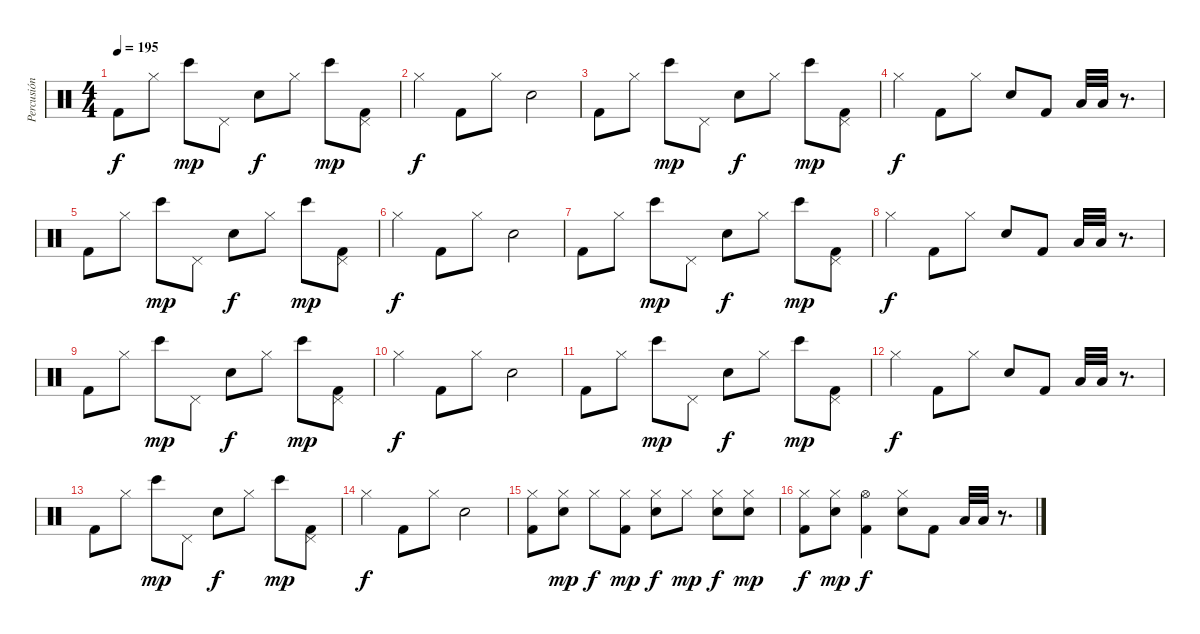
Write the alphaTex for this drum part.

\track ("Percusión" "Percusión") {instrument percussion}
\staff {score}
\articulation defaults
\ts (4 4)
\tempo 195
\clef neutral
\ks c "Kick (hit) 2".8{dy f} "Hi-Hat (closed)".8 "Bongo High (hit)".8{dy mp} "Pedal Hi-Hat (hit)".8 "Electric Snare (hit)".8{dy f} "Hi-Hat (closed)".8 "Bongo High (hit)".8{dy mp}
("Pedal Hi-Hat (hit)" "Kick (hit) 2").8 |
"Hi-Hat (closed)".4{dy f} "Kick (hit) 2".8 "Hi-Hat (closed)".8 "Electric Snare (hit)".2 |
"Kick (hit) 2".8 "Hi-Hat (closed)".8 "Bongo High (hit)".8{dy mp} "Pedal Hi-Hat (hit)".8 "Electric Snare (hit)".8{dy f} "Hi-Hat (closed)".8 "Bongo High (hit)".8{dy mp} ("Pedal Hi-Hat (hit)" "Kick (hit) 2").8 |
"Hi-Hat (closed)".4{dy f} "Kick (hit) 2".8 "Hi-Hat (closed)".8 "Electric Snare (hit)".8 "Kick (hit) 2".8 "Low Floor Tom (hit)".32 "Low Floor Tom (hit)".32 r.8{d} |
"Kick (hit) 2".8 "Hi-Hat (closed)".8 "Bongo High (hit)".8{dy mp} "Pedal Hi-Hat (hit)".8 "Electric Snare (hit)".8{dy f} "Hi-Hat (closed)".8 "Bongo High (hit)".8{dy mp} ("Pedal Hi-Hat (hit)" "Kick (hit) 2").8 |
"Hi-Hat (closed)".4{dy f} "Kick (hit) 2".8 "Hi-Hat (closed)".8 "Electric Snare (hit)".2 |
"Kick (hit) 2".8 "Hi-Hat (closed)".8 "Bongo High (hit)".8{dy mp} "Pedal Hi-Hat (hit)".8 "Electric Snare (hit)".8{dy f} "Hi-Hat (closed)".8 "Bongo High (hit)".8{dy mp} ("Pedal Hi-Hat (hit)" "Kick (hit) 2").8 |
"Hi-Hat (closed)".4{dy f} "Kick (hit) 2".8 "Hi-Hat (closed)".8 "Electric Snare (hit)".8 "Kick (hit) 2".8 "Low Floor Tom (hit)".32 "Low Floor Tom (hit)".32 r.8{d} |
"Kick (hit) 2".8 "Hi-Hat (closed)".8 "Bongo High (hit)".8{dy mp} "Pedal Hi-Hat (hit)".8 "Electric Snare (hit)".8{dy f} "Hi-Hat (closed)".8 "Bongo High (hit)".8{dy mp} ("Pedal Hi-Hat (hit)" "Kick (hit) 2").8 |
"Hi-Hat (closed)".4{dy f} "Kick (hit) 2".8 "Hi-Hat (closed)".8 "Electric Snare (hit)".2 |
"Kick (hit) 2".8 "Hi-Hat (closed)".8 "Bongo High (hit)".8{dy mp} "Pedal Hi-Hat (hit)".8 "Electric Snare (hit)".8{dy f} "Hi-Hat (closed)".8 "Bongo High (hit)".8{dy mp} ("Pedal Hi-Hat (hit)" "Kick (hit) 2").8 |
"Hi-Hat (closed)".4{dy f} "Kick (hit) 2".8 "Hi-Hat (closed)".8 "Electric Snare (hit)".8 "Kick (hit) 2".8 "Low Floor Tom (hit)".32 "Low Floor Tom (hit)".32 r.8{d} |
"Kick (hit) 2".8 "Hi-Hat (closed)".8 "Bongo High (hit)".8{dy mp} "Pedal Hi-Hat (hit)".8 "Electric Snare (hit)".8{dy f} "Hi-Hat (closed)".8 "Bongo High (hit)".8{dy mp} ("Pedal Hi-Hat (hit)" "Kick (hit) 2").8 |
"Hi-Hat (closed)".4{dy f} "Kick (hit) 2".8 "Hi-Hat (closed)".8 "Electric Snare (hit)".2 |
("Hi-Hat (closed)" "Kick (hit) 2").8 ("Hi-Hat (closed)" "Electric Snare (hit)").8{dy mp} "Hi-Hat (closed)".8{dy f} ("Hi-Hat (closed)" "Kick (hit) 2").8{dy mp} ("Hi-Hat (closed)" "Electric Snare (hit)").8{dy f} "Hi-Hat (closed)".8{dy mp} ("Hi-Hat (closed)" "Electric Snare (hit)").8{dy f} ("Hi-Hat (closed)" "Electric Snare (hit)").8{dy mp} |
("Hi-Hat (closed)" "Kick (hit) 2").8{dy f} ("Hi-Hat (closed)" "Electric Snare (hit)").8{dy mp} ("Hi-Hat (open)" "Kick (hit) 2").4{dy f} ("Hi-Hat (closed)" "Electric Snare (hit)").8 "Kick (hit) 2".8 "Low Floor Tom (hit)".32 "Low Floor Tom (hit)".32 r.8{d}
